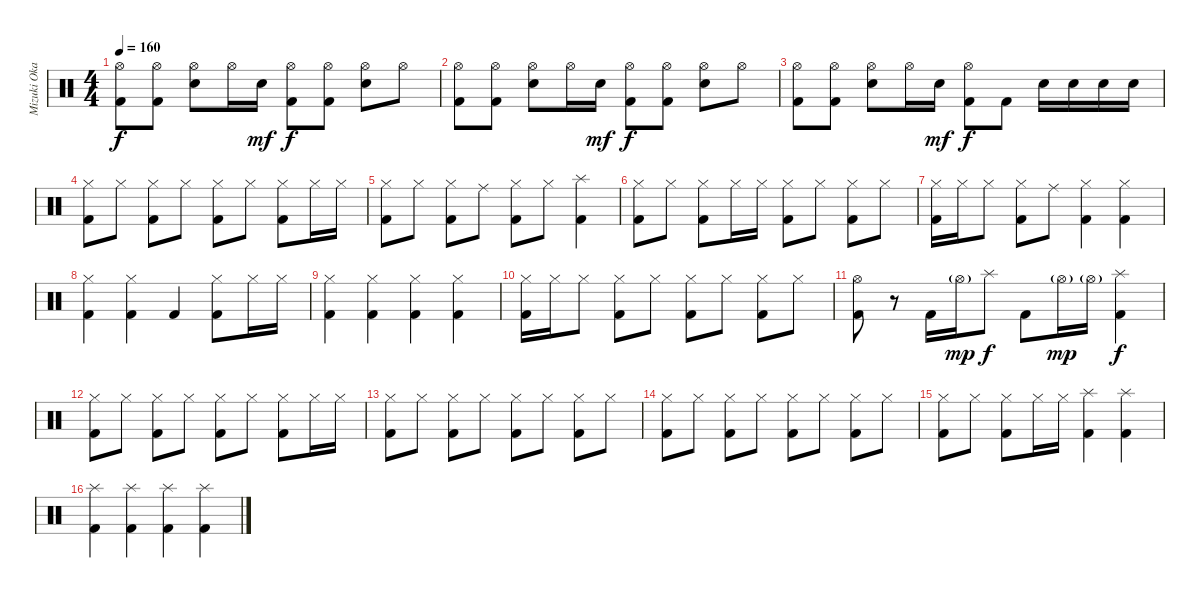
\track ("Mizuki Okajima (Drums)" "Mizuki Oka") {instrument percussion}
\staff {score}
\articulation defaults
\ts (4 4)
\tempo 160
\clef neutral
\ks c
("Hi-Hat (open)" "Kick (hit) 2").8{dy f} ("Hi-Hat (open)" "Kick (hit) 2").8 ("Hi-Hat (open)" "Snare (hit) 2").8 "Hi-Hat (open)".16 "Snare (hit) 2".16{dy mf} ("Hi-Hat (open)" "Kick (hit) 2").8{dy f} ("Hi-Hat (open)" "Kick (hit) 2").8 ("Hi-Hat (open)" "Snare (hit) 2").8 "Hi-Hat (open)".8 |
("Hi-Hat (open)" "Kick (hit) 2").8 ("Hi-Hat (open)" "Kick (hit) 2").8 ("Hi-Hat (open)" "Snare (hit) 2").8 "Hi-Hat (open)".16 "Snare (hit) 2".16{dy mf} ("Hi-Hat (open)" "Kick (hit) 2").8{dy f} ("Hi-Hat (open)" "Kick (hit) 2").8 ("Hi-Hat (open)" "Snare (hit) 2").8 "Hi-Hat (open)".8 |
("Hi-Hat (open)" "Kick (hit) 2").8 ("Hi-Hat (open)" "Kick (hit) 2").8 ("Hi-Hat (open)" "Snare (hit) 2").8 "Hi-Hat (open)".16 "Snare (hit) 2".16{dy mf} ("Hi-Hat (open)" "Kick (hit) 2").8{dy f} "Kick (hit) 2".8 "Snare (hit) 2".16 "Snare (hit) 2".16 "Snare (hit) 2".16 "Snare (hit) 2".16 |
("Hi-Hat (closed)" "Kick (hit) 2").8 "Hi-Hat (closed)".8 ("Hi-Hat (closed)" "Kick (hit) 2").8 "Hi-Hat (closed)".8 ("Hi-Hat (closed)" "Kick (hit) 2").8 "Hi-Hat (closed)".8 ("Hi-Hat (closed)" "Kick (hit) 2").8 "Hi-Hat (closed)".16 "Hi-Hat (closed)".16 |
("Hi-Hat (closed)" "Kick (hit) 2").8 "Hi-Hat (closed)".8 ("Hi-Hat (closed)" "Kick (hit) 2").8 "Ride (middle)".8 ("Hi-Hat (closed)" "Kick (hit) 2").8 "Hi-Hat (closed)".8 ("Splash (hit)" "Kick (hit) 2").4 |
("Hi-Hat (closed)" "Kick (hit) 2").8 "Hi-Hat (closed)".8 ("Hi-Hat (closed)" "Kick (hit) 2").8 "Hi-Hat (closed)".16 "Hi-Hat (closed)".16 ("Hi-Hat (closed)" "Kick (hit) 2").8 "Hi-Hat (closed)".8 ("Hi-Hat (closed)" "Kick (hit) 2").8 "Hi-Hat (closed)".8 |
("Hi-Hat (closed)" "Kick (hit) 2").16 "Hi-Hat (closed)".16 "Hi-Hat (closed)".8 ("Hi-Hat (closed)" "Kick (hit) 2").8 "Ride (middle)".8 ("Hi-Hat (closed)" "Kick (hit) 2").4 ("Hi-Hat (closed)" "Kick (hit) 2").4 |
("Hi-Hat (closed)" "Kick (hit) 2").4 ("Hi-Hat (closed)" "Kick (hit) 2").4 "Kick (hit) 2".4 ("Hi-Hat (closed)" "Kick (hit) 2").8 "Hi-Hat (closed)".16 "Hi-Hat (closed)".16 |
("Hi-Hat (closed)" "Kick (hit) 2").4 ("Hi-Hat (closed)" "Kick (hit) 2").4 ("Hi-Hat (closed)" "Kick (hit) 2").4 ("Hi-Hat (closed)" "Kick (hit) 2").4 |
("Hi-Hat (closed)" "Kick (hit) 2").16 "Hi-Hat (closed)".16 "Hi-Hat (closed)".8 ("Hi-Hat (closed)" "Kick (hit) 2").8 "Hi-Hat (closed)".8 ("Hi-Hat (closed)" "Kick (hit) 2").8 "Hi-Hat (closed)".8 ("Hi-Hat (closed)" "Kick (hit) 2").8 "Hi-Hat (closed)".8 |
("Hi-Hat (open)" "Kick (hit) 2").8 r.8 "Kick (hit) 2".16 "Hi-Hat (open)"{g}.16{dy mp} "Splash (hit)".8{dy f} "Kick (hit) 2".8 "Hi-Hat (open)"{g}.16{dy mp} "Hi-Hat (open)"{g}.16 ("Splash (hit)" "Kick (hit) 2").4{dy f} |
("Hi-Hat (closed)" "Kick (hit) 2").8 "Hi-Hat (closed)".8 ("Hi-Hat (closed)" "Kick (hit) 2").8 "Hi-Hat (closed)".8 ("Hi-Hat (closed)" "Kick (hit) 2").8 "Hi-Hat (closed)".8 ("Hi-Hat (closed)" "Kick (hit) 2").8 "Hi-Hat (closed)".16 "Hi-Hat (closed)".16 |
("Hi-Hat (closed)" "Kick (hit) 2").8 "Hi-Hat (closed)".8 ("Hi-Hat (closed)" "Kick (hit) 2").8 "Hi-Hat (closed)".8 ("Hi-Hat (closed)" "Kick (hit) 2").8 "Hi-Hat (closed)".8 ("Hi-Hat (closed)" "Kick (hit) 2").8 "Hi-Hat (closed)".8 |
("Hi-Hat (closed)" "Kick (hit) 2").8 "Hi-Hat (closed)".8 ("Hi-Hat (closed)" "Kick (hit) 2").8 "Hi-Hat (closed)".8 ("Hi-Hat (closed)" "Kick (hit) 2").8 "Hi-Hat (closed)".8 ("Hi-Hat (closed)" "Kick (hit) 2").8 "Hi-Hat (closed)".8 |
("Hi-Hat (closed)" "Kick (hit) 2").8 "Hi-Hat (closed)".8 ("Hi-Hat (closed)" "Kick (hit) 2").8 "Hi-Hat (closed)".16 "Hi-Hat (closed)".16 ("Splash (hit)" "Kick (hit) 2").4 ("Splash (hit)" "Kick (hit) 2").4 |
("Splash (hit)" "Kick (hit) 2").4 ("Splash (hit)" "Kick (hit) 2").4 ("Splash (hit)" "Kick (hit) 2").4 ("Splash (hit)" "Kick (hit) 2").4
